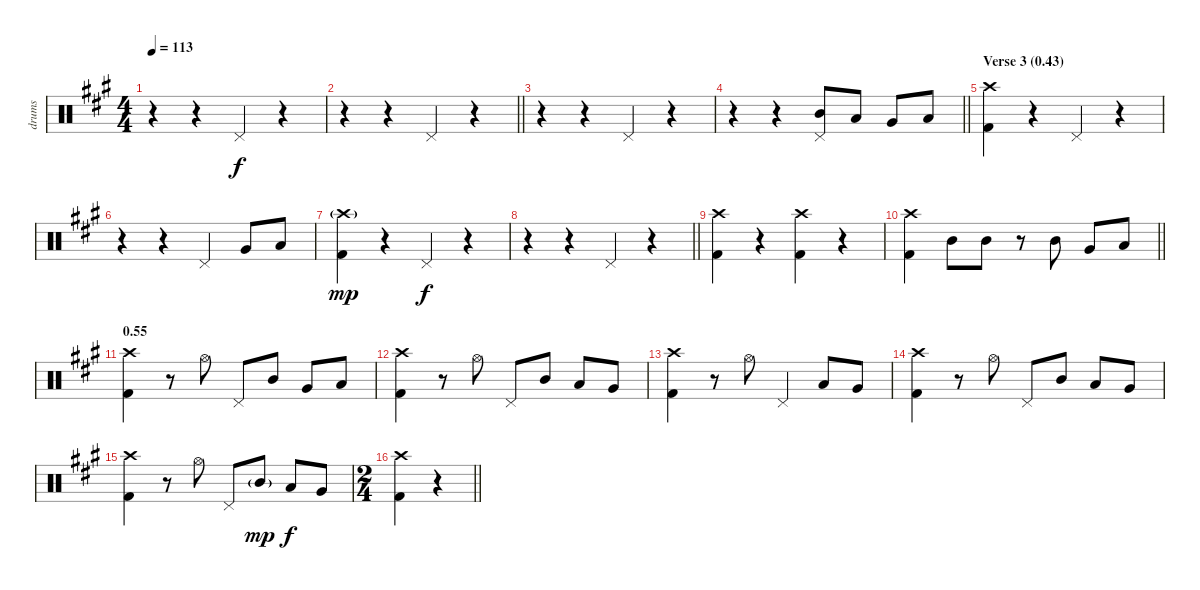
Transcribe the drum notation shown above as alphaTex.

\track ("drums" "drums") {instrument percussion}
\staff {score}
\articulation defaults
\ts (4 4)
\tempo 113
\clef neutral
\ks a
r.4{dy f} r.4 "Pedal Hi-Hat (hit)".4 r.4 |
\barLineRight lightlight
r.4 r.4 "Pedal Hi-Hat (hit)".4 r.4 |
r.4 r.4 "Pedal Hi-Hat (hit)".4 r.4 |
\barLineRight lightlight
r.4 r.4 ("Pedal Hi-Hat (hit)" "Mid Tom (hit)").8 "Low Tom (hit)".8 "Very Low Tom (hit)".8 "Low Tom (hit)".8 |
\section ("" "Verse 3 (0.43)")
("Crash high (hit)" "Kick (hit) 2").4 r.4 "Pedal Hi-Hat (hit)".4 r.4 |
r.4 r.4 "Pedal Hi-Hat (hit)".4 "Very Low Tom (hit)".8 "Low Tom (hit)".8 |
("Crash high (hit)"{g} "Kick (hit) 2").4{dy mp} r.4 "Pedal Hi-Hat (hit)".4{dy f} r.4 |
\barLineRight lightlight
r.4 r.4 "Pedal Hi-Hat (hit)".4 r.4 |
("Crash high (hit)" "Kick (hit) 2").4 r.4 ("Crash high (hit)" "Kick (hit) 2").4 r.4 |
\barLineRight lightlight
("Crash high (hit)" "Kick (hit) 2").4 "Mid Tom (hit)".8 "Mid Tom (hit)".8 r.8 "Mid Tom (hit)".8 "Very Low Tom (hit)".8 "Low Tom (hit)".8 |
\section ("" "0.55")
("Crash high (hit)" "Kick (hit) 2").4 r.8 "Hi-Hat (open)".8 "Pedal Hi-Hat (hit)".8 "Mid Tom (hit)".8 "Very Low Tom (hit)".8 "Low Tom (hit)".8 |
("Crash high (hit)" "Kick (hit) 2").4 r.8 "Hi-Hat (open)".8 "Pedal Hi-Hat (hit)".8 "Mid Tom (hit)".8 "Low Tom (hit)".8 "Very Low Tom (hit)".8 |
("Crash high (hit)" "Kick (hit) 2").4 r.8 "Hi-Hat (open)".8 "Pedal Hi-Hat (hit)".4 "Low Tom (hit)".8 "Very Low Tom (hit)".8 |
("Crash high (hit)" "Kick (hit) 2").4 r.8 "Hi-Hat (open)".8 "Pedal Hi-Hat (hit)".8 "Mid Tom (hit)".8 "Low Tom (hit)".8 "Very Low Tom (hit)".8 |
("Crash high (hit)" "Kick (hit) 2").4 r.8 "Hi-Hat (open)".8 "Pedal Hi-Hat (hit)".8 "Mid Tom (hit)"{g}.8{dy mp} "Low Tom (hit)".8{dy f} "Very Low Tom (hit)".8 |
\ts (2 4)
\barLineRight lightlight
("Crash high (hit)" "Kick (hit) 2").4 r.4
